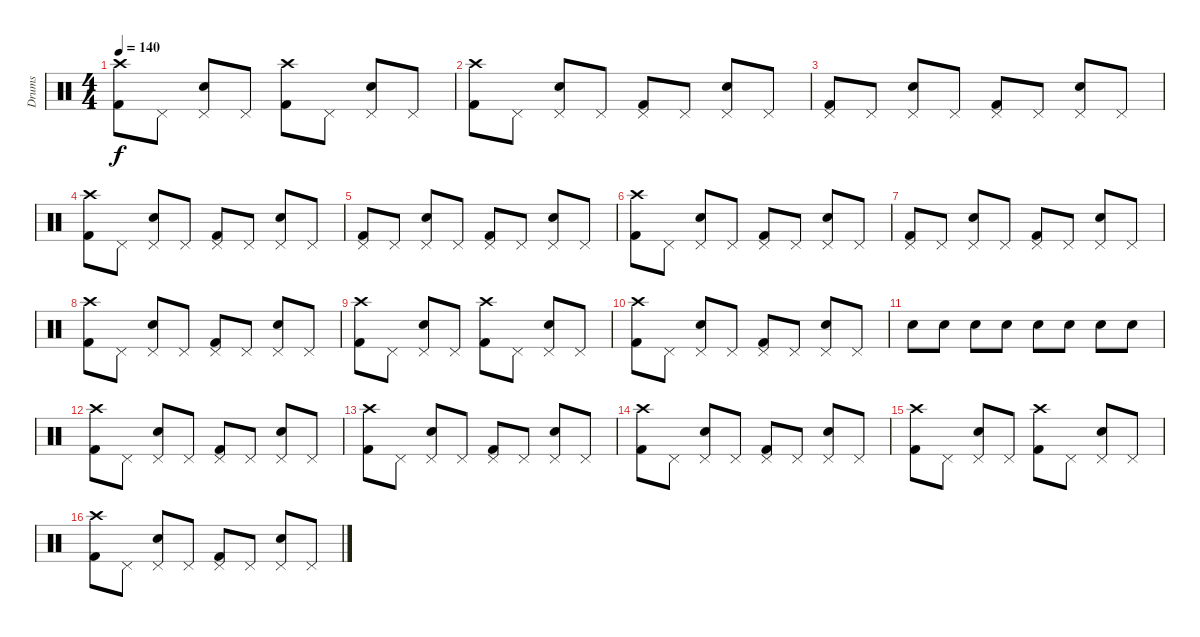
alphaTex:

\track ("Drums" "Drums") {instrument percussion}
\staff {score}
\articulation defaults
\ts (4 4)
\tempo 140
\clef neutral
\ks c
("Crash high (hit)" "Kick (hit) 2").8{dy f} "Pedal Hi-Hat (hit)".8 ("Pedal Hi-Hat (hit)" "Snare (hit) 2").8 "Pedal Hi-Hat (hit)".8 ("Crash high (hit)" "Kick (hit) 2").8 "Pedal Hi-Hat (hit)".8 ("Pedal Hi-Hat (hit)" "Snare (hit) 2").8 "Pedal Hi-Hat (hit)".8 |
("Crash high (hit)" "Kick (hit) 2").8 "Pedal Hi-Hat (hit)".8 ("Pedal Hi-Hat (hit)" "Snare (hit) 2").8 "Pedal Hi-Hat (hit)".8 ("Pedal Hi-Hat (hit)" "Kick (hit) 2").8 "Pedal Hi-Hat (hit)".8 ("Pedal Hi-Hat (hit)" "Snare (hit) 2").8 "Pedal Hi-Hat (hit)".8 |
("Pedal Hi-Hat (hit)" "Kick (hit) 2").8 "Pedal Hi-Hat (hit)".8 ("Pedal Hi-Hat (hit)" "Snare (hit) 2").8 "Pedal Hi-Hat (hit)".8 ("Pedal Hi-Hat (hit)" "Kick (hit) 2").8 "Pedal Hi-Hat (hit)".8 ("Pedal Hi-Hat (hit)" "Snare (hit) 2").8 "Pedal Hi-Hat (hit)".8 |
("Crash high (hit)" "Kick (hit) 2").8 "Pedal Hi-Hat (hit)".8 ("Pedal Hi-Hat (hit)" "Snare (hit) 2").8 "Pedal Hi-Hat (hit)".8 ("Pedal Hi-Hat (hit)" "Kick (hit) 2").8 "Pedal Hi-Hat (hit)".8 ("Pedal Hi-Hat (hit)" "Snare (hit) 2").8 "Pedal Hi-Hat (hit)".8 |
("Pedal Hi-Hat (hit)" "Kick (hit) 2").8 "Pedal Hi-Hat (hit)".8 ("Pedal Hi-Hat (hit)" "Snare (hit) 2").8 "Pedal Hi-Hat (hit)".8 ("Pedal Hi-Hat (hit)" "Kick (hit) 2").8 "Pedal Hi-Hat (hit)".8 ("Pedal Hi-Hat (hit)" "Snare (hit) 2").8 "Pedal Hi-Hat (hit)".8 |
("Crash high (hit)" "Kick (hit) 2").8 "Pedal Hi-Hat (hit)".8 ("Pedal Hi-Hat (hit)" "Snare (hit) 2").8 "Pedal Hi-Hat (hit)".8 ("Pedal Hi-Hat (hit)" "Kick (hit) 2").8 "Pedal Hi-Hat (hit)".8 ("Pedal Hi-Hat (hit)" "Snare (hit) 2").8 "Pedal Hi-Hat (hit)".8 |
("Pedal Hi-Hat (hit)" "Kick (hit) 2").8 "Pedal Hi-Hat (hit)".8 ("Pedal Hi-Hat (hit)" "Snare (hit) 2").8 "Pedal Hi-Hat (hit)".8 ("Pedal Hi-Hat (hit)" "Kick (hit) 2").8 "Pedal Hi-Hat (hit)".8 ("Pedal Hi-Hat (hit)" "Snare (hit) 2").8 "Pedal Hi-Hat (hit)".8 |
("Crash high (hit)" "Kick (hit) 2").8 "Pedal Hi-Hat (hit)".8 ("Pedal Hi-Hat (hit)" "Snare (hit) 2").8 "Pedal Hi-Hat (hit)".8 ("Pedal Hi-Hat (hit)" "Kick (hit) 2").8 "Pedal Hi-Hat (hit)".8 ("Pedal Hi-Hat (hit)" "Snare (hit) 2").8 "Pedal Hi-Hat (hit)".8 |
("Crash high (hit)" "Kick (hit) 2").8 "Pedal Hi-Hat (hit)".8 ("Pedal Hi-Hat (hit)" "Snare (hit) 2").8 "Pedal Hi-Hat (hit)".8 ("Crash high (hit)" "Kick (hit) 2").8 "Pedal Hi-Hat (hit)".8 ("Pedal Hi-Hat (hit)" "Snare (hit) 2").8 "Pedal Hi-Hat (hit)".8 |
("Crash high (hit)" "Kick (hit) 2").8 "Pedal Hi-Hat (hit)".8 ("Pedal Hi-Hat (hit)" "Snare (hit) 2").8 "Pedal Hi-Hat (hit)".8 ("Pedal Hi-Hat (hit)" "Kick (hit) 2").8 "Pedal Hi-Hat (hit)".8 ("Pedal Hi-Hat (hit)" "Snare (hit) 2").8 "Pedal Hi-Hat (hit)".8 |
"Snare (hit) 2".8 "Snare (hit) 2".8 "Snare (hit) 2".8 "Snare (hit) 2".8 "Snare (hit) 2".8 "Snare (hit) 2".8 "Snare (hit) 2".8 "Snare (hit) 2".8 |
("Crash high (hit)" "Kick (hit) 2").8 "Pedal Hi-Hat (hit)".8 ("Pedal Hi-Hat (hit)" "Snare (hit) 2").8 "Pedal Hi-Hat (hit)".8 ("Pedal Hi-Hat (hit)" "Kick (hit) 2").8 "Pedal Hi-Hat (hit)".8 ("Pedal Hi-Hat (hit)" "Snare (hit) 2").8 "Pedal Hi-Hat (hit)".8 |
("Crash high (hit)" "Kick (hit) 2").8 "Pedal Hi-Hat (hit)".8 ("Pedal Hi-Hat (hit)" "Snare (hit) 2").8 "Pedal Hi-Hat (hit)".8 ("Pedal Hi-Hat (hit)" "Kick (hit) 2").8 "Pedal Hi-Hat (hit)".8 ("Pedal Hi-Hat (hit)" "Snare (hit) 2").8 "Pedal Hi-Hat (hit)".8 |
("Crash high (hit)" "Kick (hit) 2").8 "Pedal Hi-Hat (hit)".8 ("Pedal Hi-Hat (hit)" "Snare (hit) 2").8 "Pedal Hi-Hat (hit)".8 ("Pedal Hi-Hat (hit)" "Kick (hit) 2").8 "Pedal Hi-Hat (hit)".8 ("Pedal Hi-Hat (hit)" "Snare (hit) 2").8 "Pedal Hi-Hat (hit)".8 |
("Crash high (hit)" "Kick (hit) 2").8 "Pedal Hi-Hat (hit)".8 ("Pedal Hi-Hat (hit)" "Snare (hit) 2").8 "Pedal Hi-Hat (hit)".8 ("Crash high (hit)" "Kick (hit) 2").8 "Pedal Hi-Hat (hit)".8 ("Pedal Hi-Hat (hit)" "Snare (hit) 2").8 "Pedal Hi-Hat (hit)".8 |
("Crash high (hit)" "Kick (hit) 2").8 "Pedal Hi-Hat (hit)".8 ("Pedal Hi-Hat (hit)" "Snare (hit) 2").8 "Pedal Hi-Hat (hit)".8 ("Pedal Hi-Hat (hit)" "Kick (hit) 2").8 "Pedal Hi-Hat (hit)".8 ("Pedal Hi-Hat (hit)" "Snare (hit) 2").8 "Pedal Hi-Hat (hit)".8
